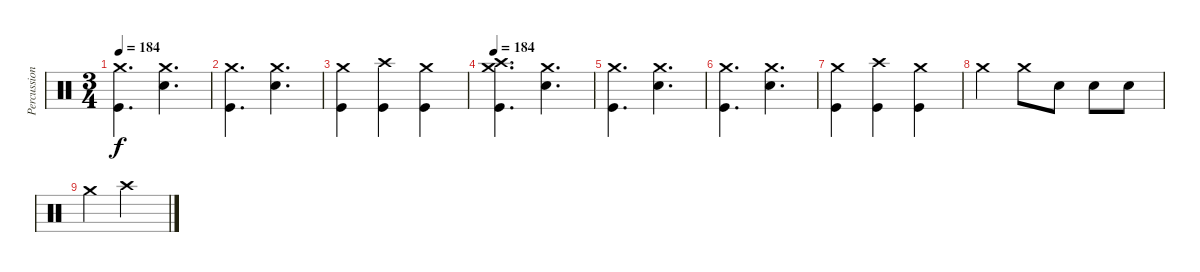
\track ("Percussion" "Percussion") {instrument percussion}
\staff {score}
\articulation defaults
\ts (3 4)
\tempo 184
\clef neutral
\ks c
("Crash medium (hit)" "Kick (hit)").4{d dy f} ("Crash medium (hit)" "Snare (hit) 2").4{d} |
("Crash medium (hit)" "Kick (hit)").4{d} ("Crash medium (hit)" "Snare (hit) 2").4{d} |
("Crash medium (hit)" "Kick (hit)").4 ("Crash high (hit)" "Kick (hit)").4 ("Crash medium (hit)" "Kick (hit)").4 |
\tempo 184
("Crash medium (hit)" "Crash high (hit)" "Kick (hit)").4{d} ("Crash medium (hit)" "Snare (hit) 2").4{d} |
("Crash medium (hit)" "Kick (hit)").4{d} ("Crash medium (hit)" "Snare (hit) 2").4{d} |
("Crash medium (hit)" "Kick (hit)").4{d} ("Crash medium (hit)" "Snare (hit) 2").4{d} |
("Crash medium (hit)" "Kick (hit)").4 ("Crash high (hit)" "Kick (hit)").4 ("Crash medium (hit)" "Kick (hit)").4 |
"Crash medium (hit)".4 "Crash medium (hit)".8 "Snare (hit) 2".8 "Snare (hit) 2".8 "Snare (hit) 2".8 |
"Crash medium (hit)".4 "Crash high (hit)".2
